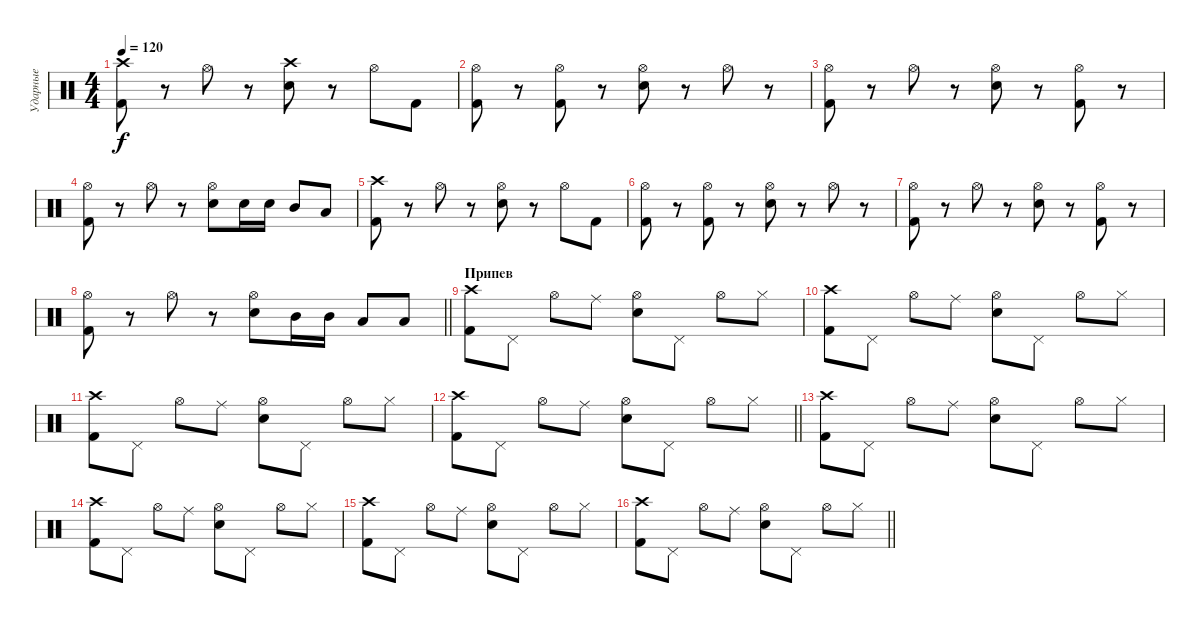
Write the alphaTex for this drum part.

\track ("Ударные" "Ударные") {instrument percussion}
\staff {score}
\articulation defaults
\ts (4 4)
\tempo 120
\clef neutral
\ks c
("Kick (hit) 2" "Crash high (hit)").8{dy f} r.8 "Hi-Hat (open)".8 r.8 ("Snare (hit) 2" "Crash high (hit)").8 r.8 "Hi-Hat (open)".8 "Kick (hit) 2".8 |
("Kick (hit) 2" "Hi-Hat (open)").8 r.8 ("Kick (hit) 2" "Hi-Hat (open)").8 r.8 ("Snare (hit) 2" "Hi-Hat (open)").8 r.8 "Hi-Hat (open)".8 r.8 |
("Kick (hit) 2" "Hi-Hat (open)").8 r.8 "Hi-Hat (open)".8 r.8 ("Snare (hit) 2" "Hi-Hat (open)").8 r.8 ("Kick (hit) 2" "Hi-Hat (open)").8 r.8 |
("Kick (hit) 2" "Hi-Hat (open)").8 r.8 "Hi-Hat (open)".8 r.8 ("Snare (hit) 2" "Hi-Hat (open)").8 "Snare (hit) 2".16 "Snare (hit) 2".16 "Mid Tom (hit)".8 "Low Tom (hit)".8 |
("Kick (hit) 2" "Crash high (hit)").8 r.8 "Hi-Hat (open)".8 r.8 ("Snare (hit) 2" "Hi-Hat (open)").8 r.8 "Hi-Hat (open)".8 "Kick (hit) 2".8 |
("Kick (hit) 2" "Hi-Hat (open)").8 r.8 ("Kick (hit) 2" "Hi-Hat (open)").8 r.8 ("Snare (hit) 2" "Hi-Hat (open)").8 r.8 "Hi-Hat (open)".8 r.8 |
("Kick (hit) 2" "Hi-Hat (open)").8 r.8 "Hi-Hat (open)".8 r.8 ("Snare (hit) 2" "Hi-Hat (open)").8 r.8 ("Kick (hit) 2" "Hi-Hat (open)").8 r.8 |
\barLineRight lightlight
("Kick (hit) 2" "Hi-Hat (open)").8 r.8 "Hi-Hat (open)".8 r.8 ("Snare (hit) 2" "Hi-Hat (open)").8 "Mid Tom (hit)".16 "Mid Tom (hit)".16 "Low Tom (hit)".8 "Low Tom (hit)".8 |
\section ("" "Припев")
("Kick (hit) 2" "Crash high (hit)").8 "Pedal Hi-Hat (hit)".8 "Hi-Hat (open)".8 "Ride (middle)".8 ("Snare (hit) 2" "Hi-Hat (open)").8 "Pedal Hi-Hat (hit)".8 "Hi-Hat (open)".8 "Hi-Hat (closed)".8 |
("Kick (hit) 2" "Crash high (hit)").8 "Pedal Hi-Hat (hit)".8 "Hi-Hat (open)".8 "Ride (middle)".8 ("Snare (hit) 2" "Hi-Hat (open)").8 "Pedal Hi-Hat (hit)".8 "Hi-Hat (open)".8 "Hi-Hat (closed)".8 |
("Kick (hit) 2" "Crash high (hit)").8 "Pedal Hi-Hat (hit)".8 "Hi-Hat (open)".8 "Ride (middle)".8 ("Snare (hit) 2" "Hi-Hat (open)").8 "Pedal Hi-Hat (hit)".8 "Hi-Hat (open)".8 "Hi-Hat (closed)".8 |
\barLineRight lightlight
("Kick (hit) 2" "Crash high (hit)").8 "Pedal Hi-Hat (hit)".8 "Hi-Hat (open)".8 "Ride (middle)".8 ("Snare (hit) 2" "Hi-Hat (open)").8 "Pedal Hi-Hat (hit)".8 "Hi-Hat (open)".8 "Hi-Hat (closed)".8 |
("Kick (hit) 2" "Crash high (hit)").8 "Pedal Hi-Hat (hit)".8 "Hi-Hat (open)".8 "Ride (middle)".8 ("Snare (hit) 2" "Hi-Hat (open)").8 "Pedal Hi-Hat (hit)".8 "Hi-Hat (open)".8 "Hi-Hat (closed)".8 |
("Kick (hit) 2" "Crash high (hit)").8 "Pedal Hi-Hat (hit)".8 "Hi-Hat (open)".8 "Ride (middle)".8 ("Snare (hit) 2" "Hi-Hat (open)").8 "Pedal Hi-Hat (hit)".8 "Hi-Hat (open)".8 "Hi-Hat (closed)".8 |
("Kick (hit) 2" "Crash high (hit)").8 "Pedal Hi-Hat (hit)".8 "Hi-Hat (open)".8 "Ride (middle)".8 ("Snare (hit) 2" "Hi-Hat (open)").8 "Pedal Hi-Hat (hit)".8 "Hi-Hat (open)".8 "Hi-Hat (closed)".8 |
\barLineRight lightlight
("Kick (hit) 2" "Crash high (hit)").8 "Pedal Hi-Hat (hit)".8 "Hi-Hat (open)".8 "Ride (middle)".8 ("Snare (hit) 2" "Hi-Hat (open)").8 "Pedal Hi-Hat (hit)".8 "Hi-Hat (open)".8 "Hi-Hat (closed)".8
